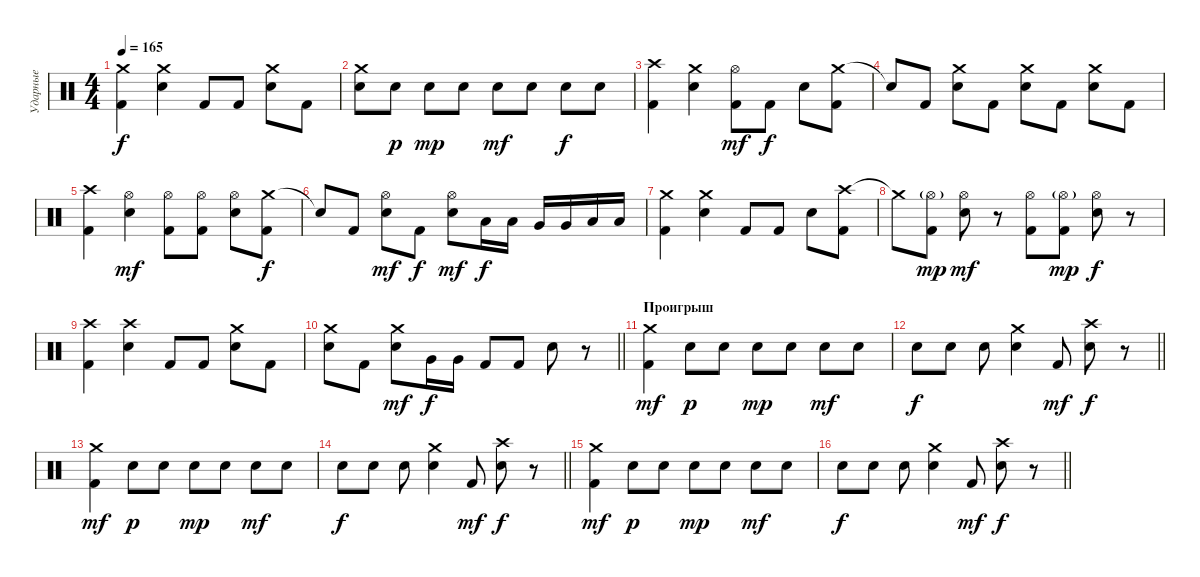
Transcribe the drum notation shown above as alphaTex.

\track ("Ударные" "Ударные") {instrument percussion}
\staff {score}
\articulation defaults
\ts (4 4)
\tempo 165
\clef neutral
\ks c
("Crash medium (hit)" "Kick (hit) 2").4{dy f} ("Crash medium (hit)" "Snare (hit) 2").4 "Kick (hit) 2".8 "Kick (hit) 2".8 ("Crash medium (hit)" "Snare (hit) 2").8 "Kick (hit) 2".8 |
("Crash medium (hit)" "Snare (hit) 2").8 "Snare (hit) 2".8{dy p} "Snare (hit) 2".8{dy mp} "Snare (hit) 2".8 "Snare (hit) 2".8{dy mf} "Snare (hit) 2".8 "Snare (hit) 2".8{dy f} "Snare (hit) 2".8 |
("Crash high (hit)" "Kick (hit) 2").4 ("Crash medium (hit)" "Snare (hit) 2").4 ("Hi-Hat (open)" "Kick (hit) 2").8{dy mf} "Kick (hit) 2".8{dy f} "Snare (hit) 2".8 ("Crash medium (hit)" "Kick (hit) 2").8 |
"Snare (hit)"{t}.8 "Kick (hit) 2".8 ("Crash medium (hit)" "Snare (hit) 2").8 "Kick (hit) 2".8 ("Crash medium (hit)" "Snare (hit) 2").8 "Kick (hit) 2".8 ("Crash medium (hit)" "Snare (hit) 2").8 "Kick (hit) 2".8 |
("Crash high (hit)" "Kick (hit) 2").4 ("Hi-Hat (open)" "Snare (hit) 2").4{dy mf} ("Hi-Hat (open)" "Kick (hit) 2").8 ("Hi-Hat (open)" "Kick (hit) 2").8 ("Hi-Hat (open)" "Snare (hit) 2").8 ("Crash medium (hit)" "Kick (hit) 2").8{dy f} |
"Snare (hit)"{t}.8 "Kick (hit) 2".8 ("Hi-Hat (open)" "Snare (hit) 2").8{dy mf} "Kick (hit) 2".8{dy f} ("Hi-Hat (open)" "Snare (hit) 2").8{dy mf} "Low Tom (hit)".16{dy f} "Low Tom (hit)".16 "Very Low Tom (hit)".16 "Very Low Tom (hit)".16 "Low Floor Tom (hit)".16 "Low Floor Tom (hit)".16 |
("Crash medium (hit)" "Kick (hit) 2").4 ("Crash medium (hit)" "Snare (hit) 2").4 "Kick (hit) 2".8 "Kick (hit) 2".8 "Snare (hit) 2".8 ("Crash high (hit)" "Kick (hit) 2").8 |
"Crash medium (hit)"{t}.8 ("Hi-Hat (open)"{g} "Kick (hit) 2").8{dy mp} ("Hi-Hat (open)" "Snare (hit) 2").8{dy mf} r.8 ("Hi-Hat (open)" "Kick (hit) 2").8 ("Hi-Hat (open)"{g} "Kick (hit) 2").8{dy mp} ("Hi-Hat (open)" "Snare (hit) 2").8{dy f} r.8 |
("Crash high (hit)" "Kick (hit) 2").4 ("Crash high (hit)" "Snare (hit) 2").4 "Kick (hit) 2".8 "Kick (hit) 2".8 ("Crash medium (hit)" "Snare (hit) 2").8 "Kick (hit) 2".8 |
\barLineRight lightlight
("Crash medium (hit)" "Snare (hit) 2").8 "Kick (hit) 2".8 ("Crash medium (hit)" "Snare (hit) 2").8{dy mf} "Very Low Tom (hit)".16{dy f} "Very Low Tom (hit)".16 "Kick (hit) 2".8 "Kick (hit) 2".8 "Snare (hit) 2".8 r.8 |
\section ("" "Проигрыш")
("Crash medium (hit)" "Kick (hit) 2").4{dy mf} "Snare (hit) 2".8{dy p} "Snare (hit) 2".8 "Snare (hit) 2".8{dy mp} "Snare (hit) 2".8 "Snare (hit) 2".8{dy mf} "Snare (hit) 2".8 |
\barLineRight lightlight "Snare (hit) 2".8{dy f} "Snare (hit) 2".8 "Snare (hit) 2".8
("Crash medium (hit)" "Snare (hit) 2").4 "Kick (hit) 2".8{dy mf} ("Crash high (hit)" "Snare (hit) 2").8{dy f} r.8 |
("Crash medium (hit)" "Kick (hit) 2").4{dy mf} "Snare (hit) 2".8{dy p} "Snare (hit) 2".8 "Snare (hit) 2".8{dy mp} "Snare (hit) 2".8 "Snare (hit) 2".8{dy mf} "Snare (hit) 2".8 |
\barLineRight lightlight "Snare (hit) 2".8{dy f} "Snare (hit) 2".8 "Snare (hit) 2".8
("Crash medium (hit)" "Snare (hit) 2").4 "Kick (hit) 2".8{dy mf} ("Crash high (hit)" "Snare (hit) 2").8{dy f} r.8 |
("Crash medium (hit)" "Kick (hit) 2").4{dy mf} "Snare (hit) 2".8{dy p} "Snare (hit) 2".8 "Snare (hit) 2".8{dy mp} "Snare (hit) 2".8 "Snare (hit) 2".8{dy mf} "Snare (hit) 2".8 |
\barLineRight lightlight "Snare (hit) 2".8{dy f} "Snare (hit) 2".8 "Snare (hit) 2".8
("Crash medium (hit)" "Snare (hit) 2").4 "Kick (hit) 2".8{dy mf} ("Crash high (hit)" "Snare (hit) 2").8{dy f} r.8
